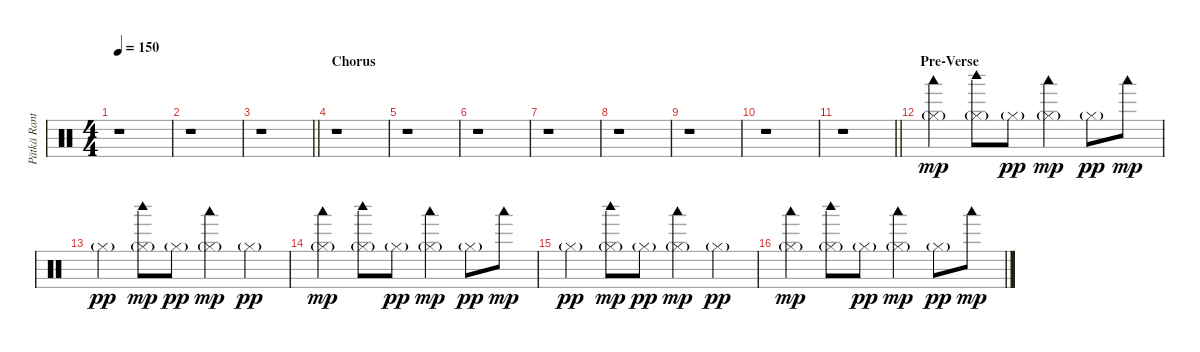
\track ("Pätkä Rantala (Drums)" "Pätkä Rant") {instrument percussion}
\staff {score}
\articulation defaults
\ts (4 4)
\tempo 150
\clef neutral
\ks c
r.1{dy pp} |
r.1 |
\barLineRight lightlight
r.1 |
\section ("" "Chorus")
r.1 |
r.1 |
r.1 |
r.1 |
r.1 |
r.1 |
r.1 |
\barLineRight lightlight
r.1 |
\section ("" "Pre-Verse")
("Hi-Hat (closed)"{g} "Woodblock low (hit)").4{dy mp} ("Hi-Hat (closed)"{g} "Woodblock high (hit)").8 "Hi-Hat (closed)"{g}.8{dy pp} ("Hi-Hat (closed)"{g} "Woodblock low (hit)").4{dy mp} "Hi-Hat (closed)"{g}.8{dy pp} "Woodblock low (hit)".8{dy mp} |
"Hi-Hat (closed)"{g}.4{dy pp} ("Hi-Hat (closed)"{g} "Woodblock high (hit)").8{dy mp} "Hi-Hat (closed)"{g}.8{dy pp} ("Hi-Hat (closed)"{g} "Woodblock low (hit)").4{dy mp} "Hi-Hat (closed)"{g}.4{dy pp} |
("Hi-Hat (closed)"{g} "Woodblock low (hit)").4{dy mp} ("Hi-Hat (closed)"{g} "Woodblock high (hit)").8 "Hi-Hat (closed)"{g}.8{dy pp} ("Hi-Hat (closed)"{g} "Woodblock low (hit)").4{dy mp} "Hi-Hat (closed)"{g}.8{dy pp} "Woodblock low (hit)".8{dy mp} |
"Hi-Hat (closed)"{g}.4{dy pp} ("Hi-Hat (closed)"{g} "Woodblock high (hit)").8{dy mp} "Hi-Hat (closed)"{g}.8{dy pp} ("Hi-Hat (closed)"{g} "Woodblock low (hit)").4{dy mp} "Hi-Hat (closed)"{g}.4{dy pp} |
("Hi-Hat (closed)"{g} "Woodblock low (hit)").4{dy mp} ("Hi-Hat (closed)"{g} "Woodblock high (hit)").8 "Hi-Hat (closed)"{g}.8{dy pp} ("Hi-Hat (closed)"{g} "Woodblock low (hit)").4{dy mp} "Hi-Hat (closed)"{g}.8{dy pp} "Woodblock low (hit)".8{dy mp}
